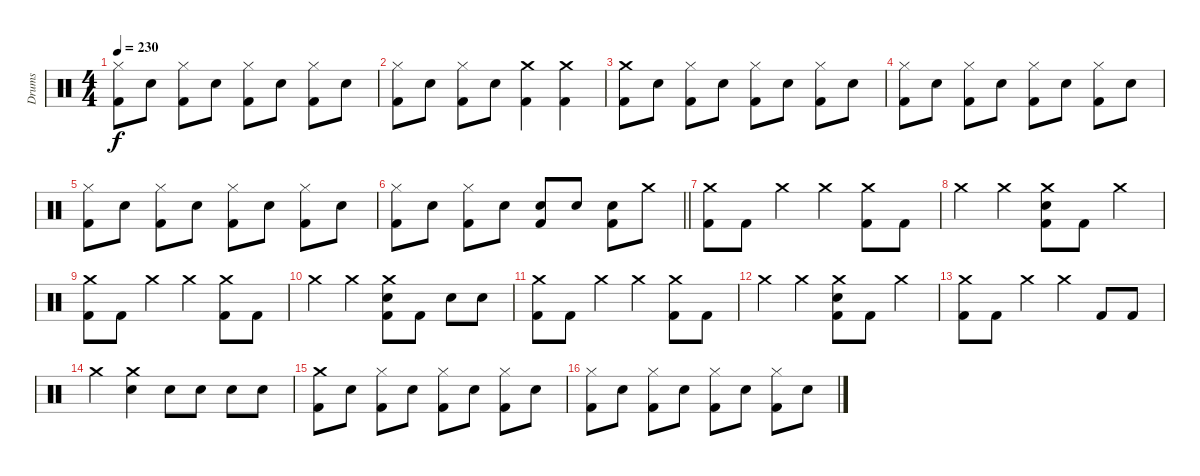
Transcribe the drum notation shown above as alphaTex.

\track ("Drums" "Drums") {instrument percussion}
\staff {score}
\articulation defaults
\ts (4 4)
\tempo 230
\clef neutral
\ks c
("Hi-Hat (closed)" "Kick (hit) 2").8{dy f} "Snare (hit) 2".8 ("Hi-Hat (closed)" "Kick (hit) 2").8 "Snare (hit) 2".8 ("Hi-Hat (closed)" "Kick (hit) 2").8 "Snare (hit) 2".8 ("Hi-Hat (closed)" "Kick (hit) 2").8 "Snare (hit) 2".8 |
("Hi-Hat (closed)" "Kick (hit) 2").8 "Snare (hit) 2".8 ("Hi-Hat (closed)" "Kick (hit) 2").8 "Snare (hit) 2".8 ("Crash medium (hit)" "Kick (hit) 2").4 ("Crash medium (hit)" "Kick (hit) 2").4 |
("Crash medium (hit)" "Kick (hit) 2").8 "Snare (hit) 2".8 ("Hi-Hat (closed)" "Kick (hit) 2").8 "Snare (hit) 2".8 ("Hi-Hat (closed)" "Kick (hit) 2").8 "Snare (hit) 2".8 ("Hi-Hat (closed)" "Kick (hit) 2").8 "Snare (hit) 2".8 |
("Hi-Hat (closed)" "Kick (hit) 2").8 "Snare (hit) 2".8 ("Hi-Hat (closed)" "Kick (hit) 2").8 "Snare (hit) 2".8 ("Hi-Hat (closed)" "Kick (hit) 2").8 "Snare (hit) 2".8 ("Hi-Hat (closed)" "Kick (hit) 2").8 "Snare (hit) 2".8 |
("Hi-Hat (closed)" "Kick (hit) 2").8 "Snare (hit) 2".8 ("Hi-Hat (closed)" "Kick (hit) 2").8 "Snare (hit) 2".8 ("Hi-Hat (closed)" "Kick (hit) 2").8 "Snare (hit) 2".8 ("Hi-Hat (closed)" "Kick (hit) 2").8 "Snare (hit) 2".8 |
\barLineRight lightlight
("Hi-Hat (closed)" "Kick (hit) 2").8 "Snare (hit) 2".8 ("Hi-Hat (closed)" "Kick (hit) 2").8 "Snare (hit) 2".8 ("Snare (hit) 2" "Kick (hit) 2").8 "Snare (hit) 2".8 ("Snare (hit) 2" "Kick (hit) 2").8 "Crash medium (hit)".8 |
\section ("" " ")
("Kick (hit) 2" "Crash medium (hit)").8 "Kick (hit) 2".8 "Crash medium (hit)".4 "Crash medium (hit)".4 ("Crash medium (hit)" "Kick (hit) 2").8 "Kick (hit) 2".8 |
"Crash medium (hit)".4 "Crash medium (hit)".4 ("Snare (hit) 2" "Kick (hit) 2" "Crash medium (hit)").8 "Kick (hit) 2".8 "Crash medium (hit)".4 |
("Kick (hit) 2" "Crash medium (hit)").8 "Kick (hit) 2".8 "Crash medium (hit)".4 "Crash medium (hit)".4 ("Crash medium (hit)" "Kick (hit) 2").8 "Kick (hit) 2".8 |
"Crash medium (hit)".4 "Crash medium (hit)".4 ("Snare (hit) 2" "Kick (hit) 2" "Crash medium (hit)").8 "Kick (hit) 2".8 "Snare (hit) 2".8 "Snare (hit) 2".8 |
("Kick (hit) 2" "Crash medium (hit)").8 "Kick (hit) 2".8 "Crash medium (hit)".4 "Crash medium (hit)".4 ("Crash medium (hit)" "Kick (hit) 2").8 "Kick (hit) 2".8 |
"Crash medium (hit)".4 "Crash medium (hit)".4 ("Snare (hit) 2" "Kick (hit) 2" "Crash medium (hit)").8 "Kick (hit) 2".8 "Crash medium (hit)".4 |
("Kick (hit) 2" "Crash medium (hit)").8 "Kick (hit) 2".8 "Crash medium (hit)".4 "Crash medium (hit)".4 "Kick (hit) 2".8 "Kick (hit) 2".8 |
"Crash medium (hit)".4 ("Snare (hit) 2" "Crash medium (hit)").4 "Snare (hit) 2".8 "Snare (hit) 2".8 "Snare (hit) 2".8 "Snare (hit) 2".8 |
("Crash medium (hit)" "Kick (hit) 2").8 "Snare (hit) 2".8 ("Hi-Hat (closed)" "Kick (hit) 2").8 "Snare (hit) 2".8 ("Hi-Hat (closed)" "Kick (hit) 2").8 "Snare (hit) 2".8 ("Hi-Hat (closed)" "Kick (hit) 2").8 "Snare (hit) 2".8 |
("Hi-Hat (closed)" "Kick (hit) 2").8 "Snare (hit) 2".8 ("Hi-Hat (closed)" "Kick (hit) 2").8 "Snare (hit) 2".8 ("Hi-Hat (closed)" "Kick (hit) 2").8 "Snare (hit) 2".8 ("Hi-Hat (closed)" "Kick (hit) 2").8 "Snare (hit) 2".8
